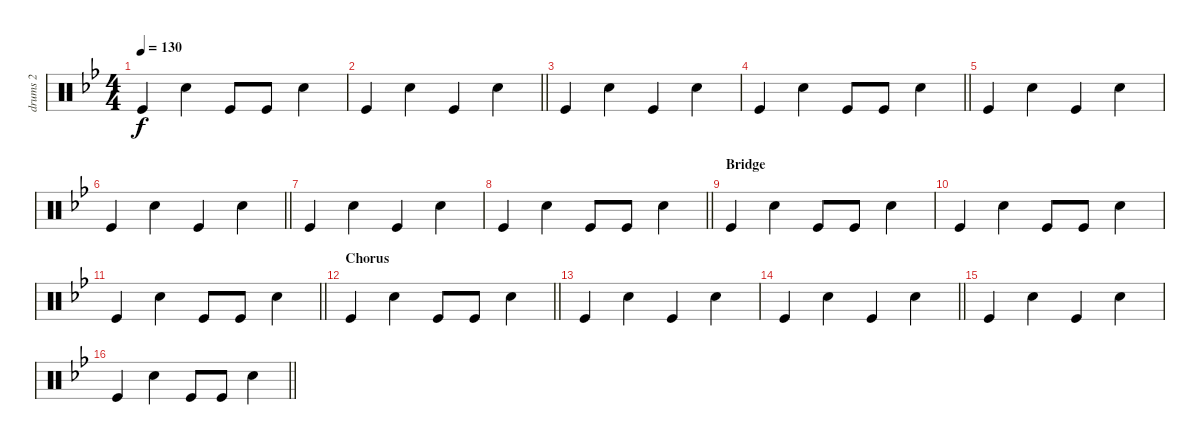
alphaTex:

\track ("drums 2" "drums 2") {instrument percussion}
\staff {score}
\articulation defaults
\ts (4 4)
\tempo 130
\clef neutral
\ks bb "Kick (hit)".4{dy f} "Snare (hit) 2".4 "Kick (hit)".8 "Kick (hit)".8 "Snare (hit) 2".4
|
\barLineRight lightlight "Kick (hit)".4 "Snare (hit) 2".4 "Kick (hit)".4 "Snare (hit) 2".4
|
"Kick (hit)".4 "Snare (hit) 2".4 "Kick (hit)".4 "Snare (hit) 2".4 |
\barLineRight lightlight "Kick (hit)".4 "Snare (hit) 2".4 "Kick (hit)".8 "Kick (hit)".8 "Snare (hit) 2".4
|
"Kick (hit)".4 "Snare (hit) 2".4 "Kick (hit)".4 "Snare (hit) 2".4 |
\barLineRight lightlight "Kick (hit)".4 "Snare (hit) 2".4 "Kick (hit)".4 "Snare (hit) 2".4
|
"Kick (hit)".4 "Snare (hit) 2".4 "Kick (hit)".4 "Snare (hit) 2".4 |
\barLineRight lightlight "Kick (hit)".4 "Snare (hit) 2".4 "Kick (hit)".8 "Kick (hit)".8 "Snare (hit) 2".4
|
\section ("" "Bridge")
"Kick (hit)".4 "Snare (hit) 2".4 "Kick (hit)".8 "Kick (hit)".8 "Snare (hit) 2".4 |
"Kick (hit)".4 "Snare (hit) 2".4 "Kick (hit)".8 "Kick (hit)".8 "Snare (hit) 2".4 |
\barLineRight lightlight "Kick (hit)".4 "Snare (hit) 2".4 "Kick (hit)".8 "Kick (hit)".8 "Snare (hit) 2".4
|
\section ("" "Chorus")
\barLineRight lightlight "Kick (hit)".4 "Snare (hit) 2".4 "Kick (hit)".8 "Kick (hit)".8 "Snare (hit) 2".4
|
"Kick (hit)".4 "Snare (hit) 2".4 "Kick (hit)".4 "Snare (hit) 2".4 |
\barLineRight lightlight "Kick (hit)".4 "Snare (hit) 2".4 "Kick (hit)".4 "Snare (hit) 2".4
|
"Kick (hit)".4 "Snare (hit) 2".4 "Kick (hit)".4 "Snare (hit) 2".4 |
\barLineRight lightlight "Kick (hit)".4 "Snare (hit) 2".4 "Kick (hit)".8 "Kick (hit)".8 "Snare (hit) 2".4
